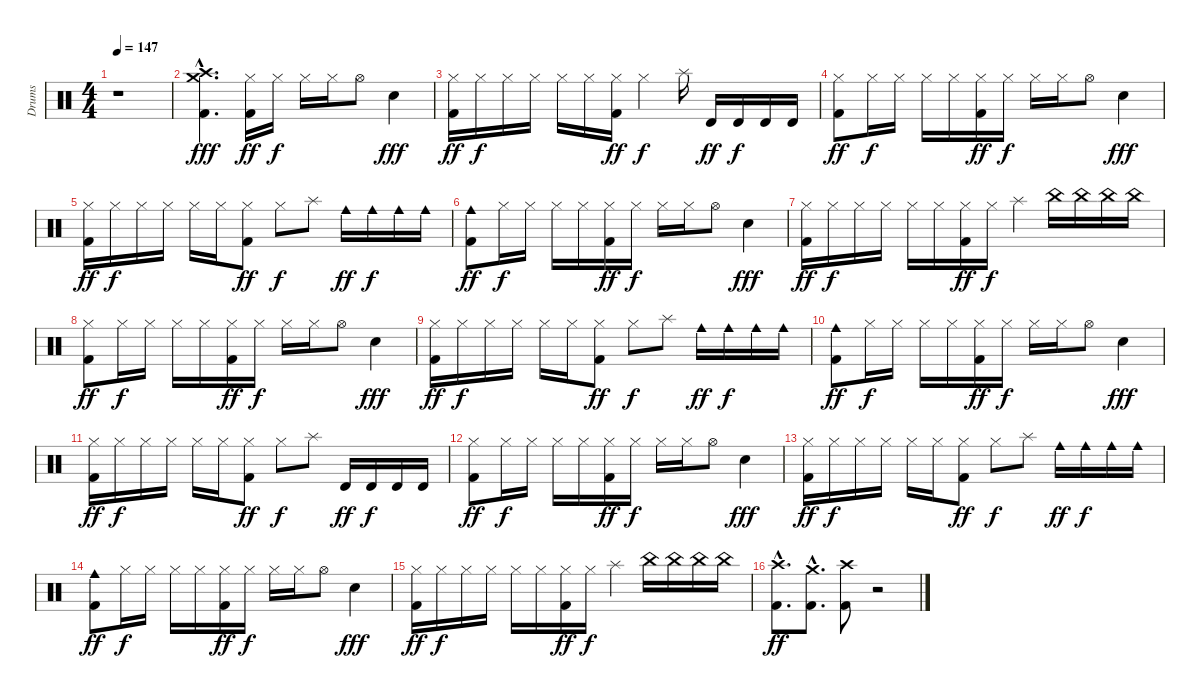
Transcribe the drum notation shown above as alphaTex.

\track ("Drums" "Drums") {instrument percussion}
\staff {score}
\articulation defaults
\ts (4 4)
\tempo 147
\clef neutral
\ks c
r.1{dy fff} |
("Crash medium (hit)"{hac} "Crash high (hit)"{hac} "Kick (hit) 2"{hac}).4{d} ("Hi-Hat (closed)" "Kick (hit) 2").16{dy ff} "Hi-Hat (closed)".16{dy f} "Hi-Hat (closed)".16 "Hi-Hat (closed)".16 "Hi-Hat (open)".8 "Electric Snare (hit)".4{dy fff} |
("Hi-Hat (closed)" "Kick (hit) 2").16{dy ff} "Hi-Hat (closed)".16{dy f} "Hi-Hat (closed)".16 "Hi-Hat (closed)".16 "Hi-Hat (closed)".16 "Hi-Hat (closed)".16 ("Kick (hit) 2" "Hi-Hat (closed)").16{dy ff} "Hi-Hat (closed)".4{dy f} "Splash (hit)".16 "Timbale high (hit)".16{dy ff} "Timbale high (hit)".16{dy f} "Timbale high (hit)".16 "Timbale high (hit)".16 |
("Kick (hit) 2" "Hi-Hat (closed)").8{dy ff} "Hi-Hat (closed)".16{dy f} "Hi-Hat (closed)".16 "Hi-Hat (closed)".16 "Hi-Hat (closed)".16 ("Hi-Hat (closed)" "Kick (hit) 2").16{dy ff} "Hi-Hat (closed)".16{dy f} "Hi-Hat (closed)".16 "Hi-Hat (closed)".16 "Hi-Hat (open)".8 "Electric Snare (hit)".4{dy fff} |
("Hi-Hat (closed)" "Kick (hit) 2").16{dy ff} "Hi-Hat (closed)".16{dy f} "Hi-Hat (closed)".16 "Hi-Hat (closed)".16 "Hi-Hat (closed)".16 "Hi-Hat (closed)".16 ("Hi-Hat (closed)" "Kick (hit) 2").8{dy ff} "Hi-Hat (closed)".8{dy f} "Splash (hit)".8 "Cowbell medium (hit)".16{dy ff} "Cowbell medium (hit)".16{dy f} "Cowbell medium (hit)".16 "Cowbell medium (hit)".16 |
("Cowbell medium (hit)" "Kick (hit) 2").8{dy ff} "Hi-Hat (closed)".16{dy f} "Hi-Hat (closed)".16 "Hi-Hat (closed)".16 "Hi-Hat (closed)".16 ("Kick (hit) 2" "Hi-Hat (closed)").16{dy ff} "Hi-Hat (closed)".16{dy f} "Hi-Hat (closed)".16 "Hi-Hat (closed)".16 "Hi-Hat (open)".8 "Electric Snare (hit)".4{dy fff} |
("Kick (hit) 2" "Hi-Hat (closed)").16{dy ff} "Hi-Hat (closed)".16{dy f} "Hi-Hat (closed)".16 "Hi-Hat (closed)".16 "Hi-Hat (closed)".16 "Hi-Hat (closed)".16 ("Hi-Hat (closed)" "Kick (hit) 2").16{dy ff} "Hi-Hat (closed)".16{dy f} "Splash (hit)".4 "China (hit)".16 "China (hit)".16 "China (hit)".16 "China (hit)".16 |
("Kick (hit) 2" "Hi-Hat (closed)").8{dy ff} "Hi-Hat (closed)".16{dy f} "Hi-Hat (closed)".16 "Hi-Hat (closed)".16 "Hi-Hat (closed)".16 ("Kick (hit) 2" "Hi-Hat (closed)").16{dy ff} "Hi-Hat (closed)".16{dy f} "Hi-Hat (closed)".16 "Hi-Hat (closed)".16 "Hi-Hat (open)".8 "Electric Snare (hit)".4{dy fff} |
("Hi-Hat (closed)" "Kick (hit) 2").16{dy ff} "Hi-Hat (closed)".16{dy f} "Hi-Hat (closed)".16 "Hi-Hat (closed)".16 "Hi-Hat (closed)".16 "Hi-Hat (closed)".16 ("Kick (hit) 2" "Hi-Hat (closed)").8{dy ff} "Hi-Hat (closed)".8{dy f} "Splash (hit)".8 "Cowbell medium (hit)".16{dy ff} "Cowbell medium (hit)".16{dy f} "Cowbell medium (hit)".16 "Cowbell medium (hit)".16 |
("Kick (hit) 2" "Cowbell medium (hit)").8{dy ff} "Hi-Hat (closed)".16{dy f} "Hi-Hat (closed)".16 "Hi-Hat (closed)".16 "Hi-Hat (closed)".16 ("Hi-Hat (closed)" "Kick (hit) 2").16{dy ff} "Hi-Hat (closed)".16{dy f} "Hi-Hat (closed)".16 "Hi-Hat (closed)".16 "Hi-Hat (open)".8 "Electric Snare (hit)".4{dy fff} |
("Kick (hit) 2" "Hi-Hat (closed)").16{dy ff} "Hi-Hat (closed)".16{dy f} "Hi-Hat (closed)".16 "Hi-Hat (closed)".16 "Hi-Hat (closed)".16 "Hi-Hat (closed)".16 ("Kick (hit) 2" "Hi-Hat (closed)").8{dy ff} "Hi-Hat (closed)".8{dy f} "Splash (hit)".8 "Timbale high (hit)".16{dy ff} "Timbale high (hit)".16{dy f} "Timbale high (hit)".16 "Timbale high (hit)".16 |
("Hi-Hat (closed)" "Kick (hit) 2").8{dy ff} "Hi-Hat (closed)".16{dy f} "Hi-Hat (closed)".16 "Hi-Hat (closed)".16 "Hi-Hat (closed)".16 ("Kick (hit) 2" "Hi-Hat (closed)").16{dy ff} "Hi-Hat (closed)".16{dy f} "Hi-Hat (closed)".16 "Hi-Hat (closed)".16 "Hi-Hat (open)".8 "Electric Snare (hit)".4{dy fff} |
("Hi-Hat (closed)" "Kick (hit) 2").16{dy ff} "Hi-Hat (closed)".16{dy f} "Hi-Hat (closed)".16 "Hi-Hat (closed)".16 "Hi-Hat (closed)".16 "Hi-Hat (closed)".16 ("Kick (hit) 2" "Hi-Hat (closed)").8{dy ff} "Hi-Hat (closed)".8{dy f} "Splash (hit)".8 "Cowbell medium (hit)".16{dy ff} "Cowbell medium (hit)".16{dy f} "Cowbell medium (hit)".16 "Cowbell medium (hit)".16 |
("Cowbell medium (hit)" "Kick (hit) 2").8{dy ff} "Hi-Hat (closed)".16{dy f} "Hi-Hat (closed)".16 "Hi-Hat (closed)".16 "Hi-Hat (closed)".16 ("Kick (hit) 2" "Hi-Hat (closed)").16{dy ff} "Hi-Hat (closed)".16{dy f} "Hi-Hat (closed)".16 "Hi-Hat (closed)".16 "Hi-Hat (open)".8 "Electric Snare (hit)".4{dy fff} |
("Kick (hit) 2" "Hi-Hat (closed)").16{dy ff} "Hi-Hat (closed)".16{dy f} "Hi-Hat (closed)".16 "Hi-Hat (closed)".16 "Hi-Hat (closed)".16 "Hi-Hat (closed)".16 ("Hi-Hat (closed)" "Kick (hit) 2").16{dy ff} "Hi-Hat (closed)".16{dy f} "Splash (hit)".4 "China (hit)".16 "China (hit)".16 "China (hit)".16 "China (hit)".16 |
("Crash high (hit)"{hac} "Kick (hit) 2"{hac}).8{d dy ff} ("Crash medium (hit)"{hac} "Kick (hit) 2"{hac}).8{d} ("Crash high (hit)" "Kick (hit) 2").8 r.2
